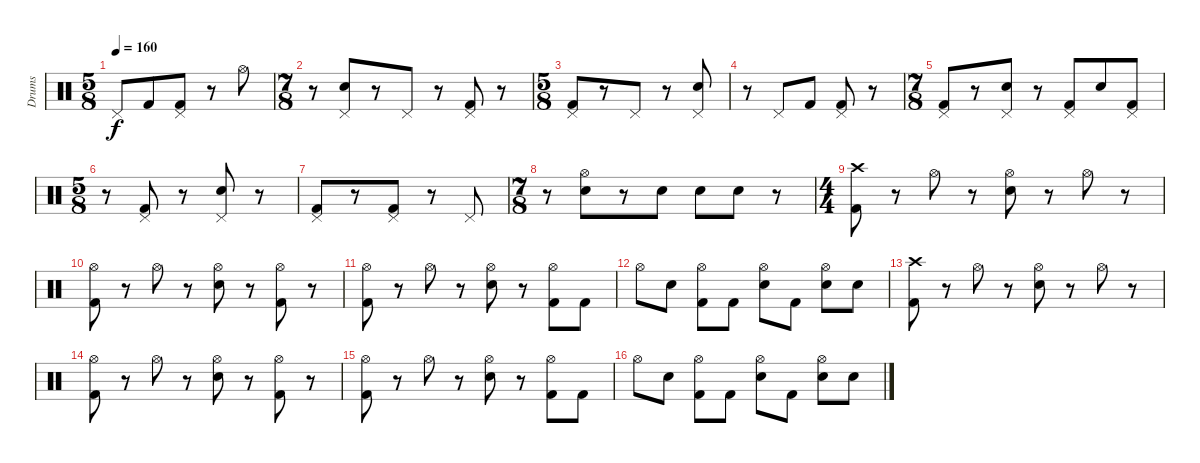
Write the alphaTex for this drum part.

\track ("Drums" "Drums") {instrument percussion}
\staff {score}
\articulation defaults
\ts (5 8)
\tempo 160
\clef neutral
\ks c "Pedal Hi-Hat (hit)".8{dy f} "Kick (hit) 2".8
("Pedal Hi-Hat (hit)" "Kick (hit) 2").8 r.8 "Hi-Hat (open)".8 |
\ts (7 8)
r.8 ("Pedal Hi-Hat (hit)" "Electric Snare (hit)").8 r.8 "Pedal Hi-Hat (hit)".8 r.8 ("Pedal Hi-Hat (hit)" "Kick (hit) 2").8 r.8 |
\ts (5 8)
("Pedal Hi-Hat (hit)" "Kick (hit) 2").8 r.8 "Pedal Hi-Hat (hit)".8 r.8 ("Pedal Hi-Hat (hit)" "Electric Snare (hit)").8 |
r.8 "Pedal Hi-Hat (hit)".8 "Kick (hit) 2".8 ("Pedal Hi-Hat (hit)" "Kick (hit) 2").8 r.8 |
\ts (7 8)
("Pedal Hi-Hat (hit)" "Kick (hit) 2").8 r.8 ("Pedal Hi-Hat (hit)" "Electric Snare (hit)").8 r.8 ("Pedal Hi-Hat (hit)" "Kick (hit) 2").8 "Electric Snare (hit)".8 ("Pedal Hi-Hat (hit)" "Kick (hit) 2").8 |
\ts (5 8)
r.8 ("Pedal Hi-Hat (hit)" "Kick (hit) 2").8 r.8 ("Pedal Hi-Hat (hit)" "Electric Snare (hit)").8 r.8 |
("Pedal Hi-Hat (hit)" "Kick (hit) 2").8 r.8 ("Pedal Hi-Hat (hit)" "Kick (hit) 2").8 r.8 "Pedal Hi-Hat (hit)".8 |
\ts (7 8)
r.8 ("Hi-Hat (open)" "Electric Snare (hit)").8 r.8 "Electric Snare (hit)".8 "Electric Snare (hit)".8 "Electric Snare (hit)".8 r.8 |
\ts (4 4)
("Crash high (hit)" "Kick (hit) 2").8 r.8 "Hi-Hat (open)".8 r.8 ("Hi-Hat (open)" "Electric Snare (hit)").8 r.8 "Hi-Hat (open)".8 r.8 |
("Hi-Hat (open)" "Kick (hit) 2").8 r.8 "Hi-Hat (open)".8 r.8 ("Hi-Hat (open)" "Electric Snare (hit)").8 r.8 ("Hi-Hat (open)" "Kick (hit) 2").8 r.8 |
("Hi-Hat (open)" "Kick (hit) 2").8 r.8 "Hi-Hat (open)".8 r.8 ("Hi-Hat (open)" "Electric Snare (hit)").8 r.8 ("Hi-Hat (open)" "Kick (hit) 2").8 "Kick (hit) 2".8 |
"Hi-Hat (open)".8 "Electric Snare (hit)".8 ("Hi-Hat (open)" "Kick (hit) 2").8 "Kick (hit) 2".8 ("Hi-Hat (open)" "Electric Snare (hit)").8 "Kick (hit) 2".8 ("Hi-Hat (open)" "Electric Snare (hit)").8 "Electric Snare (hit)".8 |
("Crash high (hit)" "Kick (hit) 2").8 r.8 "Hi-Hat (open)".8 r.8 ("Hi-Hat (open)" "Electric Snare (hit)").8 r.8 "Hi-Hat (open)".8 r.8 |
("Hi-Hat (open)" "Kick (hit) 2").8 r.8 "Hi-Hat (open)".8 r.8 ("Hi-Hat (open)" "Electric Snare (hit)").8 r.8 ("Hi-Hat (open)" "Kick (hit) 2").8 r.8 |
("Hi-Hat (open)" "Kick (hit) 2").8 r.8 "Hi-Hat (open)".8 r.8 ("Hi-Hat (open)" "Electric Snare (hit)").8 r.8 ("Hi-Hat (open)" "Kick (hit) 2").8 "Kick (hit) 2".8 |
"Hi-Hat (open)".8 "Electric Snare (hit)".8 ("Hi-Hat (open)" "Kick (hit) 2").8 "Kick (hit) 2".8 ("Hi-Hat (open)" "Electric Snare (hit)").8 "Kick (hit) 2".8 ("Hi-Hat (open)" "Electric Snare (hit)").8 "Electric Snare (hit)".8
